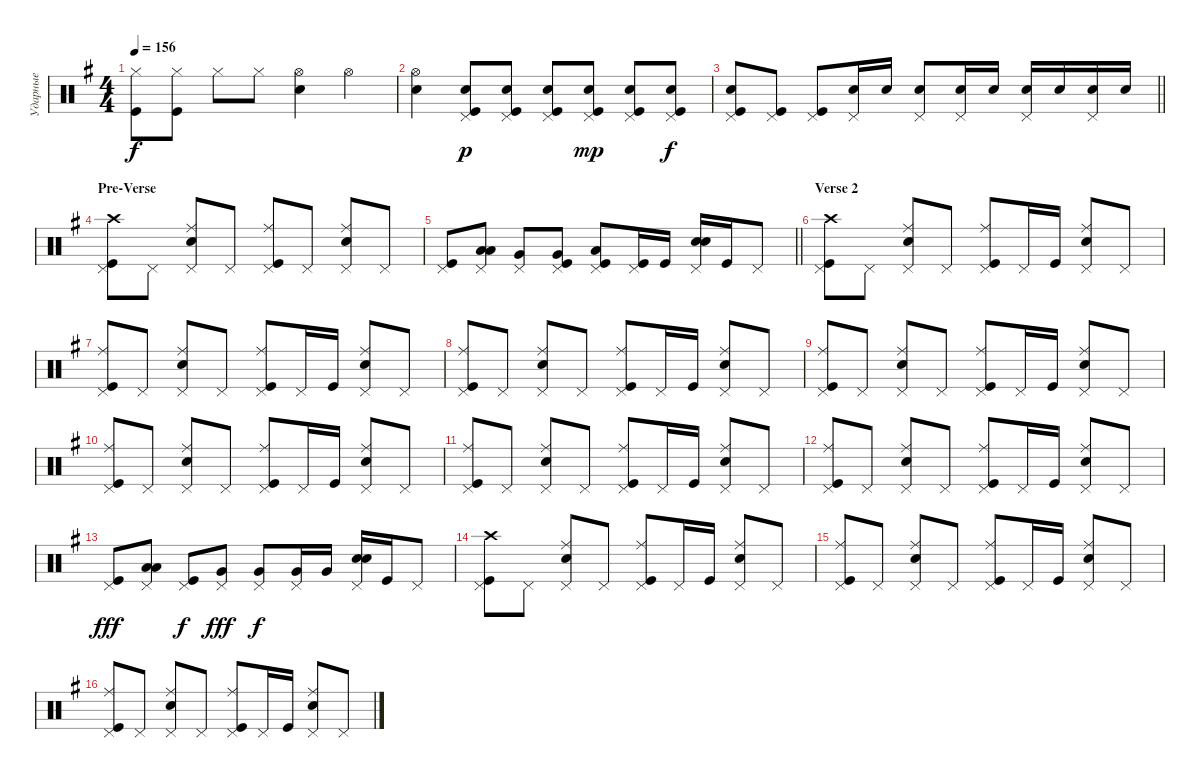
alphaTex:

\track ("Ударные" "Ударные") {instrument percussion}
\staff {score}
\articulation defaults
\ts (4 4)
\tempo 156
\clef neutral
\ks eminor
("Hi-Hat (closed)" "Kick (hit)").8{dy f} ("Hi-Hat (closed)" "Kick (hit)").8 "Hi-Hat (closed)".8 "Hi-Hat (closed)".8 ("Hi-Hat (open)" "Snare (hit) 2").4 "Hi-Hat (open)".4 |
("Snare (hit) 2" "Hi-Hat (open)").4 ("Pedal Hi-Hat (hit)" "Kick (hit)" "Snare (hit) 2").8{dy p} ("Pedal Hi-Hat (hit)" "Kick (hit)" "Snare (hit) 2").8 ("Pedal Hi-Hat (hit)" "Kick (hit)" "Snare (hit) 2").8 ("Pedal Hi-Hat (hit)" "Kick (hit)" "Snare (hit) 2").8{dy mp} ("Pedal Hi-Hat (hit)" "Kick (hit)" "Snare (hit) 2").8 ("Pedal Hi-Hat (hit)" "Kick (hit)" "Snare (hit) 2").8{dy f} |
\barLineRight lightlight
("Kick (hit)" "Pedal Hi-Hat (hit)" "Snare (hit) 2").8 ("Kick (hit)" "Pedal Hi-Hat (hit)").8 ("Kick (hit)" "Pedal Hi-Hat (hit)").8 ("Snare (hit) 2" "Pedal Hi-Hat (hit)").16 "Snare (hit) 2".16 ("Snare (hit) 2" "Pedal Hi-Hat (hit)").8 ("Snare (hit) 2" "Pedal Hi-Hat (hit)").16 "Snare (hit) 2".16 ("Snare (hit) 2" "Pedal Hi-Hat (hit)").16 "Snare (hit) 2".16 ("Snare (hit) 2" "Pedal Hi-Hat (hit)").16 "Snare (hit) 2".16 |
\section ("" "Pre-Verse")
("Kick (hit)" "Pedal Hi-Hat (hit)" "Crash high (hit)").8 "Pedal Hi-Hat (hit)".8 ("Snare (hit) 2" "Ride (middle)" "Pedal Hi-Hat (hit)").8 "Pedal Hi-Hat (hit)".8 ("Ride (middle)" "Kick (hit)" "Pedal Hi-Hat (hit)").8 "Pedal Hi-Hat (hit)".8 ("Ride (middle)" "Snare (hit) 2" "Pedal Hi-Hat (hit)").8 "Pedal Hi-Hat (hit)".8 |
\barLineRight lightlight
("Kick (hit)" "Pedal Hi-Hat (hit)").8 ("Low Tom (hit)" "Low Tom (hit)" "Pedal Hi-Hat (hit)").8{bd 240} ("Very Low Tom (hit)" "Pedal Hi-Hat (hit)").8 ("Kick (hit)" "Very Low Tom (hit)" "Pedal Hi-Hat (hit)").8 ("Low Tom (hit)" "Kick (hit)" "Pedal Hi-Hat (hit)").8 ("Kick (hit)" "Pedal Hi-Hat (hit)").16 "Kick (hit)".16 ("Snare (hit) 2" "Snare (hit) 2" "Pedal Hi-Hat (hit)").16{bd 240} "Kick (hit)".16 "Pedal Hi-Hat (hit)".8 |
\section ("" "Verse 2")
("Kick (hit)" "Crash high (hit)" "Pedal Hi-Hat (hit)").8 "Pedal Hi-Hat (hit)".8 ("Snare (hit) 2" "Ride (middle)" "Pedal Hi-Hat (hit)").8 "Pedal Hi-Hat (hit)".8 ("Kick (hit)" "Ride (middle)" "Pedal Hi-Hat (hit)").8 "Pedal Hi-Hat (hit)".16 "Kick (hit)".16 ("Snare (hit) 2" "Ride (middle)" "Pedal Hi-Hat (hit)").8 "Pedal Hi-Hat (hit)".8 |
("Kick (hit)" "Ride (middle)" "Pedal Hi-Hat (hit)").8 "Pedal Hi-Hat (hit)".8 ("Snare (hit) 2" "Ride (middle)" "Pedal Hi-Hat (hit)").8 "Pedal Hi-Hat (hit)".8 ("Kick (hit)" "Ride (middle)" "Pedal Hi-Hat (hit)").8 "Pedal Hi-Hat (hit)".16 "Kick (hit)".16 ("Snare (hit) 2" "Ride (middle)" "Pedal Hi-Hat (hit)").8 "Pedal Hi-Hat (hit)".8 |
("Kick (hit)" "Ride (middle)" "Pedal Hi-Hat (hit)").8 "Pedal Hi-Hat (hit)".8 ("Snare (hit) 2" "Ride (middle)" "Pedal Hi-Hat (hit)").8 "Pedal Hi-Hat (hit)".8 ("Kick (hit)" "Ride (middle)" "Pedal Hi-Hat (hit)").8 "Pedal Hi-Hat (hit)".16 "Kick (hit)".16 ("Snare (hit) 2" "Ride (middle)" "Pedal Hi-Hat (hit)").8 "Pedal Hi-Hat (hit)".8 |
("Kick (hit)" "Ride (middle)" "Pedal Hi-Hat (hit)").8 "Pedal Hi-Hat (hit)".8 ("Snare (hit) 2" "Ride (middle)" "Pedal Hi-Hat (hit)").8 "Pedal Hi-Hat (hit)".8 ("Kick (hit)" "Ride (middle)" "Pedal Hi-Hat (hit)").8 "Pedal Hi-Hat (hit)".16 "Kick (hit)".16 ("Snare (hit) 2" "Ride (middle)" "Pedal Hi-Hat (hit)").8 "Pedal Hi-Hat (hit)".8 |
("Kick (hit)" "Ride (middle)" "Pedal Hi-Hat (hit)").8 "Pedal Hi-Hat (hit)".8 ("Snare (hit) 2" "Ride (middle)" "Pedal Hi-Hat (hit)").8 "Pedal Hi-Hat (hit)".8 ("Kick (hit)" "Ride (middle)" "Pedal Hi-Hat (hit)").8 "Pedal Hi-Hat (hit)".16 "Kick (hit)".16 ("Snare (hit) 2" "Ride (middle)" "Pedal Hi-Hat (hit)").8 "Pedal Hi-Hat (hit)".8 |
("Kick (hit)" "Ride (middle)" "Pedal Hi-Hat (hit)").8 "Pedal Hi-Hat (hit)".8 ("Snare (hit) 2" "Ride (middle)" "Pedal Hi-Hat (hit)").8 "Pedal Hi-Hat (hit)".8 ("Kick (hit)" "Ride (middle)" "Pedal Hi-Hat (hit)").8 "Pedal Hi-Hat (hit)".16 "Kick (hit)".16 ("Snare (hit) 2" "Ride (middle)" "Pedal Hi-Hat (hit)").8 "Pedal Hi-Hat (hit)".8 |
("Kick (hit)" "Ride (middle)" "Pedal Hi-Hat (hit)").8 "Pedal Hi-Hat (hit)".8 ("Snare (hit) 2" "Ride (middle)" "Pedal Hi-Hat (hit)").8 "Pedal Hi-Hat (hit)".8 ("Kick (hit)" "Ride (middle)" "Pedal Hi-Hat (hit)").8 "Pedal Hi-Hat (hit)".16 "Kick (hit)".16 ("Snare (hit) 2" "Ride (middle)" "Pedal Hi-Hat (hit)").8 "Pedal Hi-Hat (hit)".8 |
("Kick (hit)" "Pedal Hi-Hat (hit)").8{dy fff} ("Low Tom (hit)" "Low Tom (hit)" "Pedal Hi-Hat (hit)").8{bd 480} ("Kick (hit)" "Pedal Hi-Hat (hit)").8{dy f} ("Very Low Tom (hit)" "Pedal Hi-Hat (hit)").8{dy fff} ("Very Low Tom (hit)" "Pedal Hi-Hat (hit)").8{dy f} ("Very Low Tom (hit)" "Pedal Hi-Hat (hit)").16 "Very Low Tom (hit)".16 ("Snare (hit) 2" "Snare (hit) 2" "Pedal Hi-Hat (hit)").16{bd 240} "Kick (hit)".16 "Pedal Hi-Hat (hit)".8 |
("Kick (hit)" "Crash high (hit)" "Pedal Hi-Hat (hit)").8 "Pedal Hi-Hat (hit)".8 ("Snare (hit) 2" "Ride (middle)" "Pedal Hi-Hat (hit)").8 "Pedal Hi-Hat (hit)".8 ("Kick (hit)" "Ride (middle)" "Pedal Hi-Hat (hit)").8 "Pedal Hi-Hat (hit)".16 "Kick (hit)".16 ("Snare (hit) 2" "Ride (middle)" "Pedal Hi-Hat (hit)").8 "Pedal Hi-Hat (hit)".8 |
("Kick (hit)" "Ride (middle)" "Pedal Hi-Hat (hit)").8 "Pedal Hi-Hat (hit)".8 ("Snare (hit) 2" "Ride (middle)" "Pedal Hi-Hat (hit)").8 "Pedal Hi-Hat (hit)".8 ("Kick (hit)" "Ride (middle)" "Pedal Hi-Hat (hit)").8 "Pedal Hi-Hat (hit)".16 "Kick (hit)".16 ("Snare (hit) 2" "Ride (middle)" "Pedal Hi-Hat (hit)").8 "Pedal Hi-Hat (hit)".8 |
("Kick (hit)" "Ride (middle)" "Pedal Hi-Hat (hit)").8 "Pedal Hi-Hat (hit)".8 ("Snare (hit) 2" "Ride (middle)" "Pedal Hi-Hat (hit)").8 "Pedal Hi-Hat (hit)".8 ("Kick (hit)" "Ride (middle)" "Pedal Hi-Hat (hit)").8 "Pedal Hi-Hat (hit)".16 "Kick (hit)".16 ("Snare (hit) 2" "Ride (middle)" "Pedal Hi-Hat (hit)").8 "Pedal Hi-Hat (hit)".8
